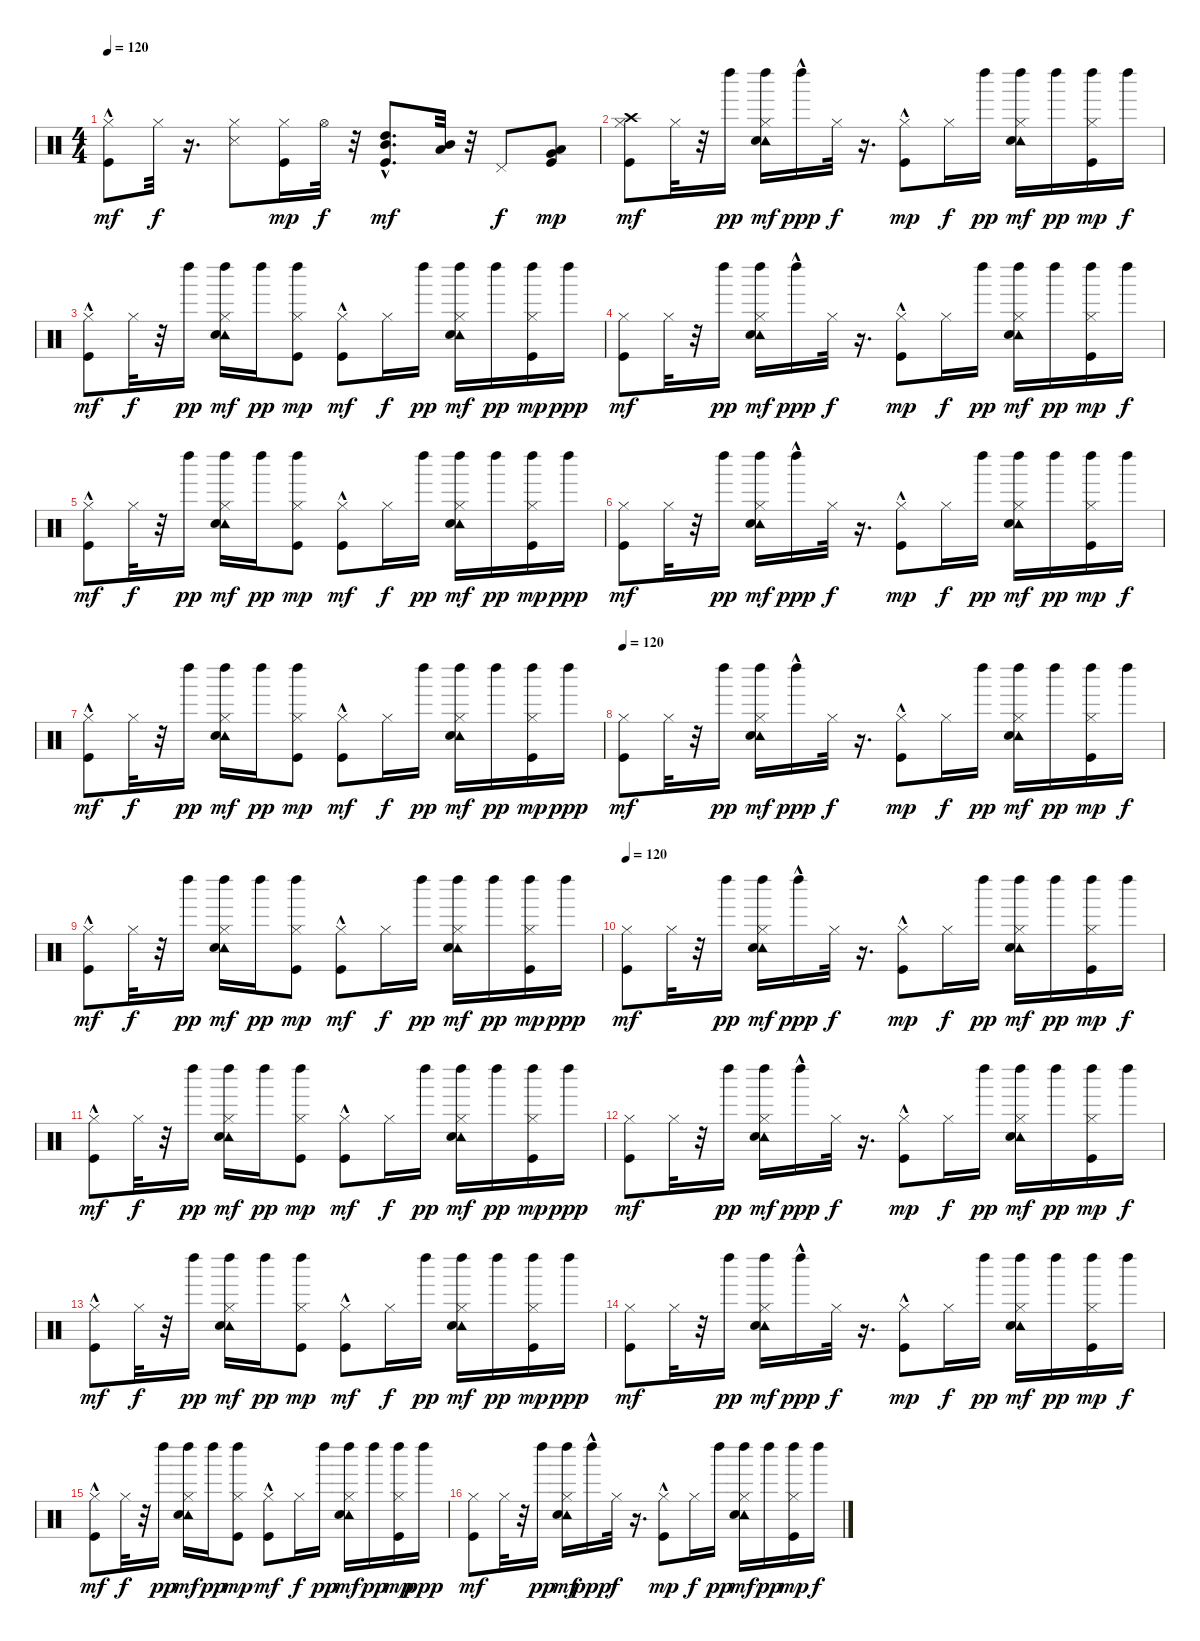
\track "" {instrument percussion}
\staff {score}
\articulation defaults
\ts (4 4)
\tempo 120
\clef neutral
\ks c
("Kick (hit)"{hac} "Hi-Hat (closed)").8{dy mf} "Hi-Hat (closed)".32{dy f} r.16{d} ("Hi-Hat (closed)" "Snare (side stick) 3").8 ("Hi-Hat (closed)" "Kick (hit)").16{dy mp} "Hi-Hat (open)".32{dy f} r.32 ("Kick (hit)"{hac} "Mid Tom (hit)" "High Tom (hit)").8{d dy mf} ("Low Tom (hit)" "Mid Tom (hit)").32 r.32 "Pedal Hi-Hat (hit)".8{dy f} ("Very Low Tom (hit)" "Low Tom (hit)" "Kick (hit)").8{dy mp} |
("Crash high (hit)" "Kick (hit)" "Hi-Hat (closed)").8{dy mf} "Hi-Hat (closed)".32 r.32 "Left Maraca (hit)".16{dy pp} ("Left Maraca (hit)" "Tambourine (hit)" "Electric Snare (hit)" "Hi-Hat (closed)").16{dy mf} "Left Maraca (hit)"{hac}.16{dy ppp} "Hi-Hat (closed)".32{dy f} r.16{d} ("Hi-Hat (closed)" "Kick (hit)"{hac}).8{dy mp} "Hi-Hat (closed)".16{dy f} "Left Maraca (hit)".16{dy pp} ("Left Maraca (hit)" "Tambourine (hit)" "Electric Snare (hit)" "Hi-Hat (closed)").16{dy mf} "Left Maraca (hit)".16{dy pp} ("Left Maraca (hit)" "Kick (hit)" "Hi-Hat (closed)").16{dy mp} "Left Maraca (hit)".16{dy f} |
("Kick (hit)"{hac} "Hi-Hat (closed)").8{dy mf} "Hi-Hat (closed)".32{dy f} r.32 "Left Maraca (hit)".16{dy pp} ("Left Maraca (hit)" "Tambourine (hit)" "Hi-Hat (closed)" "Electric Snare (hit)").16{dy mf} "Left Maraca (hit)".16{dy pp} ("Left Maraca (hit)" "Hi-Hat (closed)" "Kick (hit)").8{dy mp} ("Kick (hit)"{hac} "Hi-Hat (closed)").8{dy mf} "Hi-Hat (closed)".16{dy f} "Left Maraca (hit)".16{dy pp} ("Left Maraca (hit)" "Tambourine (hit)" "Electric Snare (hit)" "Hi-Hat (closed)").16{dy mf} "Left Maraca (hit)".16{dy pp} ("Left Maraca (hit)" "Kick (hit)" "Hi-Hat (closed)").16{dy mp} "Left Maraca (hit)".16{dy ppp} |
("Kick (hit)" "Hi-Hat (closed)").8{dy mf} "Hi-Hat (closed)".32 r.32 "Left Maraca (hit)".16{dy pp} ("Left Maraca (hit)" "Tambourine (hit)" "Electric Snare (hit)" "Hi-Hat (closed)").16{dy mf} "Left Maraca (hit)"{hac}.16{dy ppp} "Hi-Hat (closed)".32{dy f} r.16{d} ("Hi-Hat (closed)" "Kick (hit)"{hac}).8{dy mp} "Hi-Hat (closed)".16{dy f} "Left Maraca (hit)".16{dy pp} ("Left Maraca (hit)" "Tambourine (hit)" "Electric Snare (hit)" "Hi-Hat (closed)").16{dy mf} "Left Maraca (hit)".16{dy pp} ("Left Maraca (hit)" "Kick (hit)" "Hi-Hat (closed)").16{dy mp} "Left Maraca (hit)".16{dy f} |
("Kick (hit)"{hac} "Hi-Hat (closed)").8{dy mf} "Hi-Hat (closed)".32{dy f} r.32 "Left Maraca (hit)".16{dy pp} ("Left Maraca (hit)" "Tambourine (hit)" "Hi-Hat (closed)" "Electric Snare (hit)").16{dy mf} "Left Maraca (hit)".16{dy pp} ("Left Maraca (hit)" "Hi-Hat (closed)" "Kick (hit)").8{dy mp} ("Kick (hit)"{hac} "Hi-Hat (closed)").8{dy mf} "Hi-Hat (closed)".16{dy f} "Left Maraca (hit)".16{dy pp} ("Left Maraca (hit)" "Tambourine (hit)" "Electric Snare (hit)" "Hi-Hat (closed)").16{dy mf} "Left Maraca (hit)".16{dy pp} ("Left Maraca (hit)" "Kick (hit)" "Hi-Hat (closed)").16{dy mp} "Left Maraca (hit)".16{dy ppp} |
("Kick (hit)" "Hi-Hat (closed)").8{dy mf} "Hi-Hat (closed)".32 r.32 "Left Maraca (hit)".16{dy pp} ("Left Maraca (hit)" "Tambourine (hit)" "Electric Snare (hit)" "Hi-Hat (closed)").16{dy mf} "Left Maraca (hit)"{hac}.16{dy ppp} "Hi-Hat (closed)".32{dy f} r.16{d} ("Hi-Hat (closed)" "Kick (hit)"{hac}).8{dy mp} "Hi-Hat (closed)".16{dy f} "Left Maraca (hit)".16{dy pp} ("Left Maraca (hit)" "Tambourine (hit)" "Electric Snare (hit)" "Hi-Hat (closed)").16{dy mf} "Left Maraca (hit)".16{dy pp} ("Left Maraca (hit)" "Kick (hit)" "Hi-Hat (closed)").16{dy mp} "Left Maraca (hit)".16{dy f} |
("Kick (hit)"{hac} "Hi-Hat (closed)").8{dy mf} "Hi-Hat (closed)".32{dy f} r.32 "Left Maraca (hit)".16{dy pp} ("Left Maraca (hit)" "Tambourine (hit)" "Hi-Hat (closed)" "Electric Snare (hit)").16{dy mf} "Left Maraca (hit)".16{dy pp} ("Left Maraca (hit)" "Hi-Hat (closed)" "Kick (hit)").8{dy mp} ("Kick (hit)"{hac} "Hi-Hat (closed)").8{dy mf} "Hi-Hat (closed)".16{dy f} "Left Maraca (hit)".16{dy pp} ("Left Maraca (hit)" "Tambourine (hit)" "Electric Snare (hit)" "Hi-Hat (closed)").16{dy mf} "Left Maraca (hit)".16{dy pp} ("Left Maraca (hit)" "Kick (hit)" "Hi-Hat (closed)").16{dy mp} "Left Maraca (hit)".16{dy ppp} |
\tempo 120
("Kick (hit)" "Hi-Hat (closed)").8{dy mf} "Hi-Hat (closed)".32 r.32 "Left Maraca (hit)".16{dy pp} ("Left Maraca (hit)" "Tambourine (hit)" "Electric Snare (hit)" "Hi-Hat (closed)").16{dy mf} "Left Maraca (hit)"{hac}.16{dy ppp} "Hi-Hat (closed)".32{dy f} r.16{d} ("Hi-Hat (closed)" "Kick (hit)"{hac}).8{dy mp} "Hi-Hat (closed)".16{dy f} "Left Maraca (hit)".16{dy pp} ("Left Maraca (hit)" "Tambourine (hit)" "Electric Snare (hit)" "Hi-Hat (closed)").16{dy mf} "Left Maraca (hit)".16{dy pp} ("Left Maraca (hit)" "Kick (hit)" "Hi-Hat (closed)").16{dy mp} "Left Maraca (hit)".16{dy f} |
("Kick (hit)"{hac} "Hi-Hat (closed)").8{dy mf} "Hi-Hat (closed)".32{dy f} r.32 "Left Maraca (hit)".16{dy pp} ("Left Maraca (hit)" "Tambourine (hit)" "Hi-Hat (closed)" "Electric Snare (hit)").16{dy mf} "Left Maraca (hit)".16{dy pp} ("Left Maraca (hit)" "Hi-Hat (closed)" "Kick (hit)").8{dy mp} ("Kick (hit)"{hac} "Hi-Hat (closed)").8{dy mf} "Hi-Hat (closed)".16{dy f} "Left Maraca (hit)".16{dy pp} ("Left Maraca (hit)" "Tambourine (hit)" "Electric Snare (hit)" "Hi-Hat (closed)").16{dy mf} "Left Maraca (hit)".16{dy pp} ("Left Maraca (hit)" "Kick (hit)" "Hi-Hat (closed)").16{dy mp} "Left Maraca (hit)".16{dy ppp} |
\tempo 120
("Kick (hit)" "Hi-Hat (closed)").8{dy mf} "Hi-Hat (closed)".32 r.32 "Left Maraca (hit)".16{dy pp} ("Left Maraca (hit)" "Tambourine (hit)" "Electric Snare (hit)" "Hi-Hat (closed)").16{dy mf} "Left Maraca (hit)"{hac}.16{dy ppp} "Hi-Hat (closed)".32{dy f} r.16{d} ("Hi-Hat (closed)" "Kick (hit)"{hac}).8{dy mp} "Hi-Hat (closed)".16{dy f} "Left Maraca (hit)".16{dy pp} ("Left Maraca (hit)" "Tambourine (hit)" "Electric Snare (hit)" "Hi-Hat (closed)").16{dy mf} "Left Maraca (hit)".16{dy pp} ("Left Maraca (hit)" "Kick (hit)" "Hi-Hat (closed)").16{dy mp} "Left Maraca (hit)".16{dy f} |
("Kick (hit)"{hac} "Hi-Hat (closed)").8{dy mf} "Hi-Hat (closed)".32{dy f} r.32 "Left Maraca (hit)".16{dy pp} ("Left Maraca (hit)" "Tambourine (hit)" "Hi-Hat (closed)" "Electric Snare (hit)").16{dy mf} "Left Maraca (hit)".16{dy pp} ("Left Maraca (hit)" "Hi-Hat (closed)" "Kick (hit)").8{dy mp} ("Kick (hit)"{hac} "Hi-Hat (closed)").8{dy mf} "Hi-Hat (closed)".16{dy f} "Left Maraca (hit)".16{dy pp} ("Left Maraca (hit)" "Tambourine (hit)" "Electric Snare (hit)" "Hi-Hat (closed)").16{dy mf} "Left Maraca (hit)".16{dy pp} ("Left Maraca (hit)" "Kick (hit)" "Hi-Hat (closed)").16{dy mp} "Left Maraca (hit)".16{dy ppp} |
("Kick (hit)" "Hi-Hat (closed)").8{dy mf} "Hi-Hat (closed)".32 r.32 "Left Maraca (hit)".16{dy pp} ("Left Maraca (hit)" "Tambourine (hit)" "Electric Snare (hit)" "Hi-Hat (closed)").16{dy mf} "Left Maraca (hit)"{hac}.16{dy ppp} "Hi-Hat (closed)".32{dy f} r.16{d} ("Hi-Hat (closed)" "Kick (hit)"{hac}).8{dy mp} "Hi-Hat (closed)".16{dy f} "Left Maraca (hit)".16{dy pp} ("Left Maraca (hit)" "Tambourine (hit)" "Electric Snare (hit)" "Hi-Hat (closed)").16{dy mf} "Left Maraca (hit)".16{dy pp} ("Left Maraca (hit)" "Kick (hit)" "Hi-Hat (closed)").16{dy mp} "Left Maraca (hit)".16{dy f} |
("Kick (hit)"{hac} "Hi-Hat (closed)").8{dy mf} "Hi-Hat (closed)".32{dy f} r.32 "Left Maraca (hit)".16{dy pp} ("Left Maraca (hit)" "Tambourine (hit)" "Hi-Hat (closed)" "Electric Snare (hit)").16{dy mf} "Left Maraca (hit)".16{dy pp} ("Left Maraca (hit)" "Hi-Hat (closed)" "Kick (hit)").8{dy mp} ("Kick (hit)"{hac} "Hi-Hat (closed)").8{dy mf} "Hi-Hat (closed)".16{dy f} "Left Maraca (hit)".16{dy pp} ("Left Maraca (hit)" "Tambourine (hit)" "Electric Snare (hit)" "Hi-Hat (closed)").16{dy mf} "Left Maraca (hit)".16{dy pp} ("Left Maraca (hit)" "Kick (hit)" "Hi-Hat (closed)").16{dy mp} "Left Maraca (hit)".16{dy ppp} |
("Kick (hit)" "Hi-Hat (closed)").8{dy mf} "Hi-Hat (closed)".32 r.32 "Left Maraca (hit)".16{dy pp} ("Left Maraca (hit)" "Tambourine (hit)" "Electric Snare (hit)" "Hi-Hat (closed)").16{dy mf} "Left Maraca (hit)"{hac}.16{dy ppp} "Hi-Hat (closed)".32{dy f} r.16{d} ("Hi-Hat (closed)" "Kick (hit)"{hac}).8{dy mp} "Hi-Hat (closed)".16{dy f} "Left Maraca (hit)".16{dy pp} ("Left Maraca (hit)" "Tambourine (hit)" "Electric Snare (hit)" "Hi-Hat (closed)").16{dy mf} "Left Maraca (hit)".16{dy pp} ("Left Maraca (hit)" "Kick (hit)" "Hi-Hat (closed)").16{dy mp} "Left Maraca (hit)".16{dy f} |
("Kick (hit)"{hac} "Hi-Hat (closed)").8{dy mf} "Hi-Hat (closed)".32{dy f} r.32 "Left Maraca (hit)".16{dy pp} ("Left Maraca (hit)" "Tambourine (hit)" "Hi-Hat (closed)" "Electric Snare (hit)").16{dy mf} "Left Maraca (hit)".16{dy pp} ("Left Maraca (hit)" "Hi-Hat (closed)" "Kick (hit)").8{dy mp} ("Kick (hit)"{hac} "Hi-Hat (closed)").8{dy mf} "Hi-Hat (closed)".16{dy f} "Left Maraca (hit)".16{dy pp} ("Left Maraca (hit)" "Tambourine (hit)" "Electric Snare (hit)" "Hi-Hat (closed)").16{dy mf} "Left Maraca (hit)".16{dy pp} ("Left Maraca (hit)" "Kick (hit)" "Hi-Hat (closed)").16{dy mp} "Left Maraca (hit)".16{dy ppp} |
("Kick (hit)" "Hi-Hat (closed)").8{dy mf} "Hi-Hat (closed)".32 r.32 "Left Maraca (hit)".16{dy pp} ("Left Maraca (hit)" "Tambourine (hit)" "Electric Snare (hit)" "Hi-Hat (closed)").16{dy mf} "Left Maraca (hit)"{hac}.16{dy ppp} "Hi-Hat (closed)".32{dy f} r.16{d} ("Hi-Hat (closed)" "Kick (hit)"{hac}).8{dy mp} "Hi-Hat (closed)".16{dy f} "Left Maraca (hit)".16{dy pp} ("Left Maraca (hit)" "Tambourine (hit)" "Electric Snare (hit)" "Hi-Hat (closed)").16{dy mf} "Left Maraca (hit)".16{dy pp} ("Left Maraca (hit)" "Kick (hit)" "Hi-Hat (closed)").16{dy mp} "Left Maraca (hit)".16{dy f}
